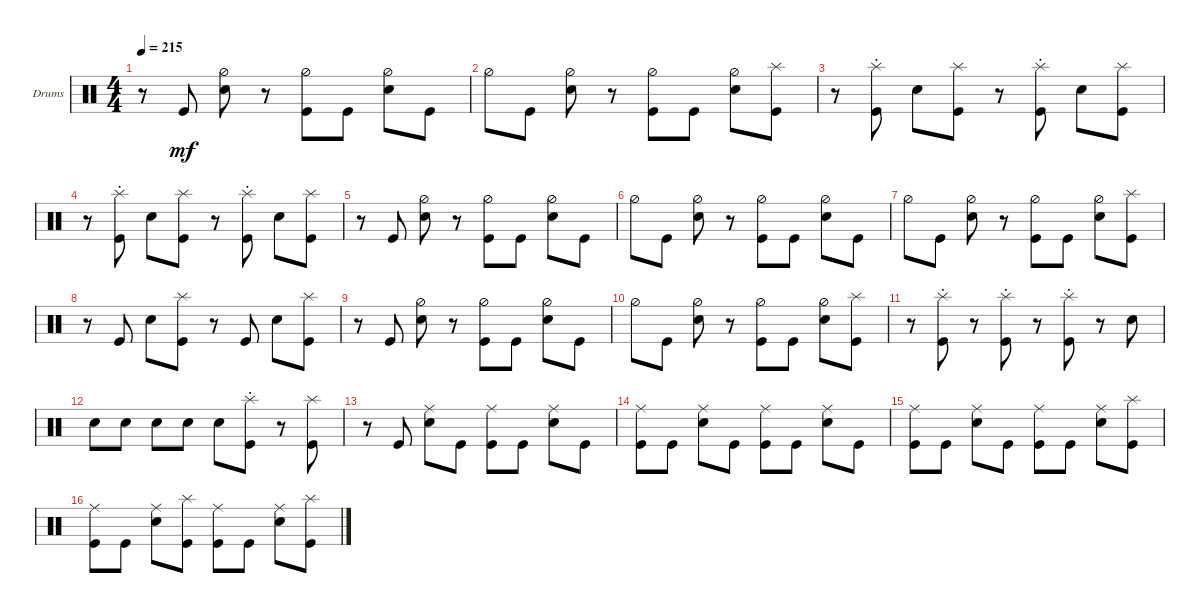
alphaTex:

\bracketExtendMode groupsimilarinstruments
\firstSystemTrackNameOrientation horizontal
\otherSystemsTrackNameOrientation horizontal
\track ("Drumkit" "Drums") {instrument percussion}
\staff {score}
\articulation defaults
\ts (4 4)
\tempo 215
\clef neutral
\ks c
r.8{dy mf} "Kick (hit)".8 ("Snare (hit) 2" "Hi-Hat (half)").8 r.8 ("Kick (hit)" "Hi-Hat (half)").8 "Kick (hit)".8 ("Snare (hit) 2" "Hi-Hat (half)").8 "Kick (hit)".8 |
"Hi-Hat (half)".8 "Kick (hit)".8 ("Snare (hit) 2" "Hi-Hat (half)").8 r.8 ("Kick (hit)" "Hi-Hat (half)").8 "Kick (hit)".8 ("Snare (hit) 2" "Hi-Hat (half)").8 ("Kick (hit)" "Splash (hit)").8 |
r.8 ("Kick (hit)" "Splash (hit)"{st}).8 "Snare (hit) 2".8 ("Kick (hit)" "Splash (hit)").8 r.8 ("Kick (hit)" "Splash (hit)"{st}).8 "Snare (hit) 2".8 ("Kick (hit)" "Splash (hit)").8 |
r.8 ("Kick (hit)" "Splash (hit)"{st}).8 "Snare (hit) 2".8 ("Kick (hit)" "Splash (hit)").8 r.8 ("Kick (hit)" "Splash (hit)"{st}).8 "Snare (hit) 2".8 ("Kick (hit)" "Splash (hit)").8 |
r.8 "Kick (hit)".8 ("Snare (hit) 2" "Hi-Hat (half)").8 r.8 ("Kick (hit)" "Hi-Hat (half)").8 "Kick (hit)".8 ("Snare (hit) 2" "Hi-Hat (half)").8 "Kick (hit)".8 |
"Hi-Hat (half)".8 "Kick (hit)".8 ("Snare (hit) 2" "Hi-Hat (half)").8 r.8 ("Kick (hit)" "Hi-Hat (half)").8 "Kick (hit)".8 ("Snare (hit) 2" "Hi-Hat (half)").8 "Kick (hit)".8 |
"Hi-Hat (half)".8 "Kick (hit)".8 ("Snare (hit) 2" "Hi-Hat (half)").8 r.8 ("Kick (hit)" "Hi-Hat (half)").8 "Kick (hit)".8 ("Snare (hit) 2" "Hi-Hat (half)").8 ("Kick (hit)" "Splash (hit)").8 |
r.8 "Kick (hit)".8 "Snare (hit) 2".8 ("Kick (hit)" "Splash (hit)").8 r.8 "Kick (hit)".8 "Snare (hit) 2".8 ("Kick (hit)" "Splash (hit)").8 |
r.8 "Kick (hit)".8 ("Snare (hit) 2" "Hi-Hat (half)").8 r.8 ("Kick (hit)" "Hi-Hat (half)").8 "Kick (hit)".8 ("Snare (hit) 2" "Hi-Hat (half)").8 "Kick (hit)".8 |
"Hi-Hat (half)".8 "Kick (hit)".8 ("Snare (hit) 2" "Hi-Hat (half)").8 r.8 ("Kick (hit)" "Hi-Hat (half)").8 "Kick (hit)".8 ("Snare (hit) 2" "Hi-Hat (half)").8 ("Kick (hit)" "Splash (hit)").8 |
r.8 ("Kick (hit)" "Splash (hit)"{st}).8 r.8 ("Kick (hit)" "Splash (hit)"{st}).8 r.8 ("Kick (hit)" "Splash (hit)"{st}).8 r.8 "Snare (hit) 2".8 |
"Snare (hit) 2".8 "Snare (hit) 2".8 "Snare (hit) 2".8 "Snare (hit) 2".8 "Snare (hit) 2".8 ("Kick (hit)" "Splash (hit)"{st}).8 r.8 ("Kick (hit)" "Splash (hit)").8 |
r.8 "Kick (hit)".8 ("Snare (hit) 2" "Ride (middle)").8 "Kick (hit)".8 ("Kick (hit)" "Ride (middle)").8 "Kick (hit)".8 ("Snare (hit) 2" "Ride (middle)").8 "Kick (hit)".8 |
("Kick (hit)" "Ride (middle)").8 "Kick (hit)".8 ("Snare (hit) 2" "Ride (middle)").8 "Kick (hit)".8 ("Kick (hit)" "Ride (middle)").8 "Kick (hit)".8 ("Snare (hit) 2" "Ride (middle)").8 "Kick (hit)".8 |
("Kick (hit)" "Ride (middle)").8 "Kick (hit)".8 ("Snare (hit) 2" "Ride (middle)").8 "Kick (hit)".8 ("Kick (hit)" "Ride (middle)").8 "Kick (hit)".8 ("Snare (hit) 2" "Ride (middle)").8 ("Kick (hit)" "Splash (hit)").8 |
("Kick (hit)" "Ride (middle)").8 "Kick (hit)".8 ("Snare (hit) 2" "Ride (middle)").8 ("Kick (hit)" "Splash (hit)").8 ("Kick (hit)" "Ride (middle)").8 "Kick (hit)".8 ("Snare (hit) 2" "Ride (middle)").8 ("Kick (hit)" "Splash (hit)").8
